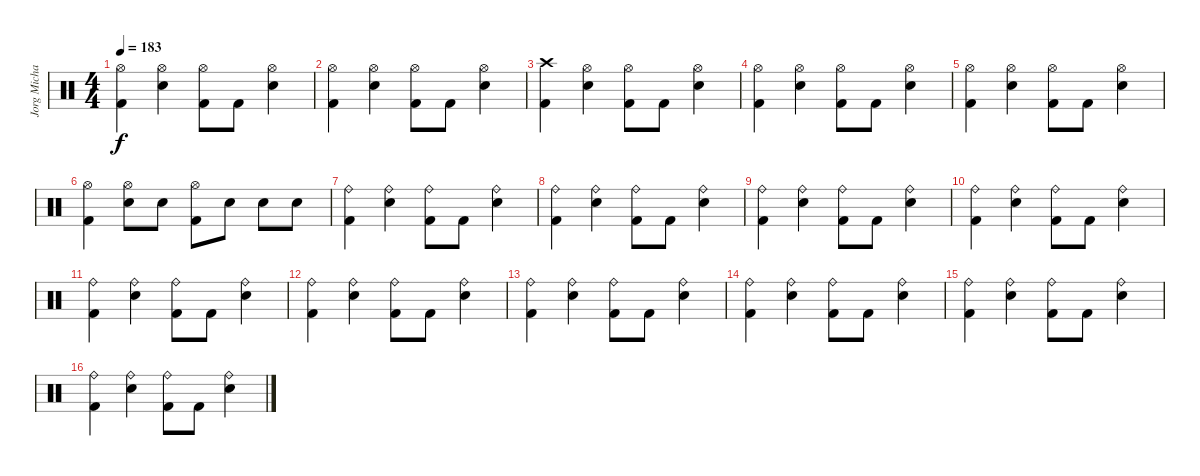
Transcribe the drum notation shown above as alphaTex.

\track ("Jorg Michael" "Jorg Micha") {instrument percussion}
\staff {score}
\articulation defaults
\ts (4 4)
\tempo 183
\clef neutral
\ks c
("Kick (hit) 2" "Hi-Hat (open)").4{dy f} ("Snare (hit) 2" "Hi-Hat (open)").4 ("Kick (hit) 2" "Hi-Hat (open)").8 "Kick (hit) 2".8 ("Snare (hit) 2" "Hi-Hat (open)").4 |
("Kick (hit) 2" "Hi-Hat (open)").4 ("Snare (hit) 2" "Hi-Hat (open)").4 ("Kick (hit) 2" "Hi-Hat (open)").8 "Kick (hit) 2".8 ("Snare (hit) 2" "Hi-Hat (open)").4 |
("Kick (hit) 2" "Crash high (hit)").4 ("Snare (hit) 2" "Hi-Hat (open)").4 ("Kick (hit) 2" "Hi-Hat (open)").8 "Kick (hit) 2".8 ("Snare (hit) 2" "Hi-Hat (open)").4 |
("Kick (hit) 2" "Hi-Hat (open)").4 ("Snare (hit) 2" "Hi-Hat (open)").4 ("Kick (hit) 2" "Hi-Hat (open)").8 "Kick (hit) 2".8 ("Snare (hit) 2" "Hi-Hat (open)").4 |
("Kick (hit) 2" "Hi-Hat (open)").4 ("Snare (hit) 2" "Hi-Hat (open)").4 ("Kick (hit) 2" "Hi-Hat (open)").8 "Kick (hit) 2".8 ("Snare (hit) 2" "Hi-Hat (open)").4 |
("Hi-Hat (open)" "Kick (hit) 2").4 ("Snare (hit) 2" "Hi-Hat (open)").8 "Snare (hit) 2".8 ("Kick (hit) 2" "Hi-Hat (open)").8 "Snare (hit) 2".8 "Snare (hit) 2".8 "Snare (hit) 2".8 |
("Kick (hit) 2" "Ride (bell)").4 ("Snare (hit) 2" "Ride (bell)").4 ("Kick (hit) 2" "Ride (bell)").8 "Kick (hit) 2".8 ("Snare (hit) 2" "Ride (bell)").4 |
("Kick (hit) 2" "Ride (bell)").4 ("Snare (hit) 2" "Ride (bell)").4 ("Kick (hit) 2" "Ride (bell)").8 "Kick (hit) 2".8 ("Snare (hit) 2" "Ride (bell)").4 |
("Kick (hit) 2" "Ride (bell)").4 ("Snare (hit) 2" "Ride (bell)").4 ("Kick (hit) 2" "Ride (bell)").8 "Kick (hit) 2".8 ("Snare (hit) 2" "Ride (bell)").4 |
("Kick (hit) 2" "Ride (bell)").4 ("Snare (hit) 2" "Ride (bell)").4 ("Kick (hit) 2" "Ride (bell)").8 "Kick (hit) 2".8 ("Snare (hit) 2" "Ride (bell)").4 |
("Kick (hit) 2" "Ride (bell)").4 ("Snare (hit) 2" "Ride (bell)").4 ("Kick (hit) 2" "Ride (bell)").8 "Kick (hit) 2".8 ("Snare (hit) 2" "Ride (bell)").4 |
("Kick (hit) 2" "Ride (bell)").4 ("Snare (hit) 2" "Ride (bell)").4 ("Kick (hit) 2" "Ride (bell)").8 "Kick (hit) 2".8 ("Snare (hit) 2" "Ride (bell)").4 |
("Kick (hit) 2" "Ride (bell)").4 ("Snare (hit) 2" "Ride (bell)").4 ("Kick (hit) 2" "Ride (bell)").8 "Kick (hit) 2".8 ("Snare (hit) 2" "Ride (bell)").4 |
("Kick (hit) 2" "Ride (bell)").4 ("Snare (hit) 2" "Ride (bell)").4 ("Kick (hit) 2" "Ride (bell)").8 "Kick (hit) 2".8 ("Snare (hit) 2" "Ride (bell)").4 |
("Kick (hit) 2" "Ride (bell)").4 ("Snare (hit) 2" "Ride (bell)").4 ("Kick (hit) 2" "Ride (bell)").8 "Kick (hit) 2".8 ("Snare (hit) 2" "Ride (bell)").4 |
("Kick (hit) 2" "Ride (bell)").4 ("Snare (hit) 2" "Ride (bell)").4 ("Kick (hit) 2" "Ride (bell)").8 "Kick (hit) 2".8 ("Snare (hit) 2" "Ride (bell)").4
